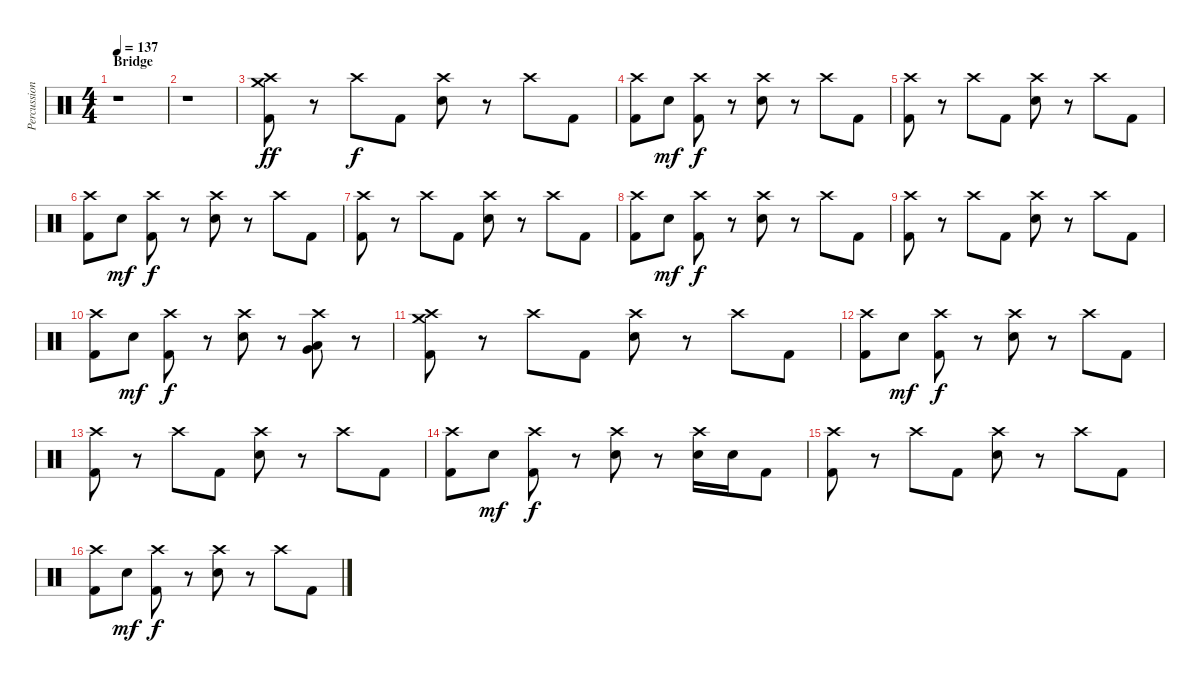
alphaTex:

\track ("Percussions" "Percussion") {instrument percussion}
\staff {score}
\articulation defaults
\ts (4 4)
\section ("" "Bridge")
\tempo 137
\clef neutral
\ks c
r.1{dy f} |
r.1 |
("Crash medium (hit)" "Crash high (hit)" "Kick (hit) 2").8{dy ff} r.8 "Crash high (hit)".8{dy f} "Kick (hit) 2".8 ("Crash high (hit)" "Electric Snare (hit)").8 r.8 "Crash high (hit)".8 "Kick (hit) 2".8 |
("Crash high (hit)" "Kick (hit) 2").8 "Electric Snare (hit)".8{dy mf} ("Crash high (hit)" "Kick (hit) 2").8{dy f} r.8 ("Crash high (hit)" "Electric Snare (hit)").8 r.8 "Crash high (hit)".8 "Kick (hit) 2".8 |
("Crash high (hit)" "Kick (hit) 2").8 r.8 "Crash high (hit)".8 "Kick (hit) 2".8 ("Crash high (hit)" "Electric Snare (hit)").8 r.8 "Crash high (hit)".8 "Kick (hit) 2".8 |
("Crash high (hit)" "Kick (hit) 2").8 "Electric Snare (hit)".8{dy mf} ("Crash high (hit)" "Kick (hit) 2").8{dy f} r.8 ("Crash high (hit)" "Electric Snare (hit)").8 r.8 "Crash high (hit)".8 "Kick (hit) 2".8 |
("Crash high (hit)" "Kick (hit) 2").8 r.8 "Crash high (hit)".8 "Kick (hit) 2".8 ("Crash high (hit)" "Electric Snare (hit)").8 r.8 "Crash high (hit)".8 "Kick (hit) 2".8 |
("Crash high (hit)" "Kick (hit) 2").8 "Electric Snare (hit)".8{dy mf} ("Crash high (hit)" "Kick (hit) 2").8{dy f} r.8 ("Crash high (hit)" "Electric Snare (hit)").8 r.8 "Crash high (hit)".8 "Kick (hit) 2".8 |
("Crash high (hit)" "Kick (hit) 2").8 r.8 "Crash high (hit)".8 "Kick (hit) 2".8 ("Crash high (hit)" "Electric Snare (hit)").8 r.8 "Crash high (hit)".8 "Kick (hit) 2".8 |
("Crash high (hit)" "Kick (hit) 2").8 "Electric Snare (hit)".8{dy mf} ("Crash high (hit)" "Kick (hit) 2").8{dy f} r.8 ("Crash high (hit)" "Electric Snare (hit)").8 r.8 ("Crash high (hit)" "Low Tom (hit)" "Very Low Tom (hit)").8 r.8 |
("Crash medium (hit)" "Crash high (hit)" "Kick (hit) 2").8 r.8 "Crash high (hit)".8 "Kick (hit) 2".8 ("Crash high (hit)" "Electric Snare (hit)").8 r.8 "Crash high (hit)".8 "Kick (hit) 2".8 |
("Crash high (hit)" "Kick (hit) 2").8 "Electric Snare (hit)".8{dy mf} ("Crash high (hit)" "Kick (hit) 2").8{dy f} r.8 ("Crash high (hit)" "Electric Snare (hit)").8 r.8 "Crash high (hit)".8 "Kick (hit) 2".8 |
("Crash high (hit)" "Kick (hit) 2").8 r.8 "Crash high (hit)".8 "Kick (hit) 2".8 ("Crash high (hit)" "Electric Snare (hit)").8 r.8 "Crash high (hit)".8 "Kick (hit) 2".8 |
("Crash high (hit)" "Kick (hit) 2").8 "Electric Snare (hit)".8{dy mf} ("Crash high (hit)" "Kick (hit) 2").8{dy f} r.8 ("Crash high (hit)" "Electric Snare (hit)").8 r.8 ("Crash high (hit)" "Electric Snare (hit)").16 "Electric Snare (hit)".16 "Kick (hit) 2".8 |
("Crash high (hit)" "Kick (hit) 2").8 r.8 "Crash high (hit)".8 "Kick (hit) 2".8 ("Crash high (hit)" "Electric Snare (hit)").8 r.8 "Crash high (hit)".8 "Kick (hit) 2".8 |
("Crash high (hit)" "Kick (hit) 2").8 "Electric Snare (hit)".8{dy mf} ("Crash high (hit)" "Kick (hit) 2").8{dy f} r.8 ("Crash high (hit)" "Electric Snare (hit)").8 r.8 "Crash high (hit)".8 "Kick (hit) 2".8
